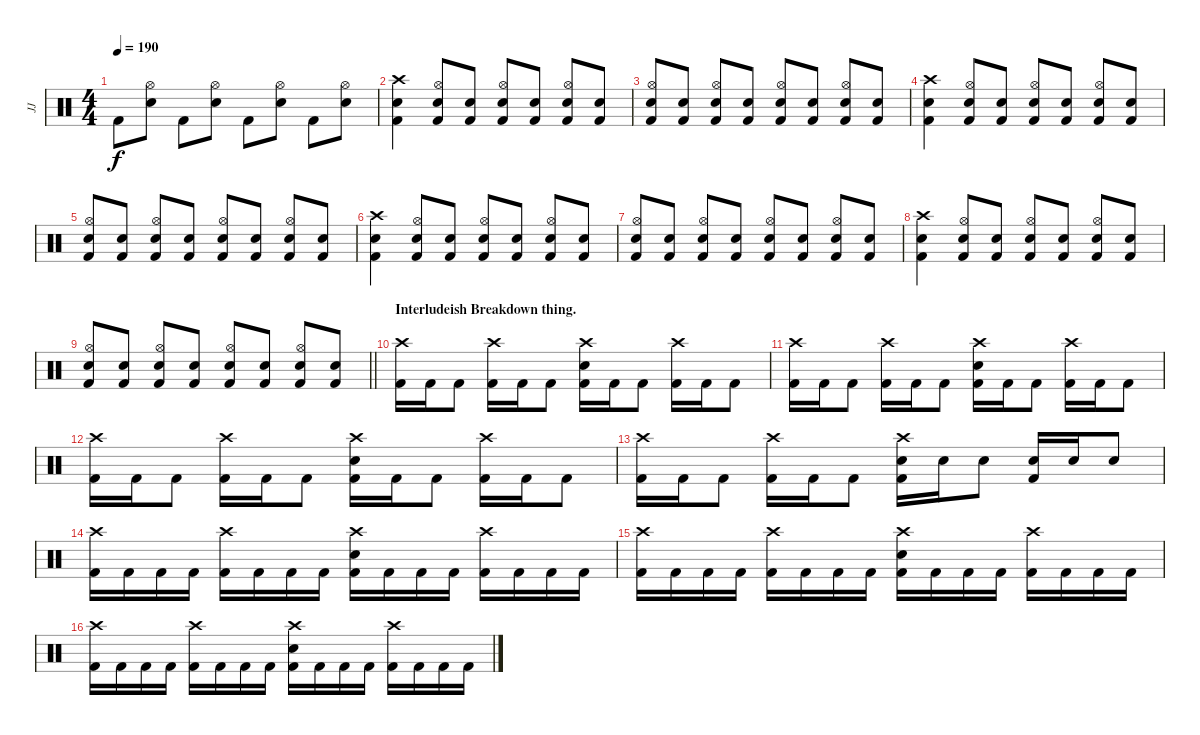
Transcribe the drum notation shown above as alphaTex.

\track ("JJ" "JJ") {instrument percussion}
\staff {score}
\articulation defaults
\ts (4 4)
\tempo 190
\clef neutral
\ks c "Kick (hit) 2".8{dy f}
("Hi-Hat (open)" "Electric Snare (hit)").8 "Kick (hit) 2".8 ("Hi-Hat (open)" "Electric Snare (hit)").8 "Kick (hit) 2".8 ("Hi-Hat (open)" "Electric Snare (hit)").8 "Kick (hit) 2".8 ("Hi-Hat (open)" "Electric Snare (hit)").8 |
("Crash high (hit)" "Electric Snare (hit)" "Kick (hit) 2").4 ("Hi-Hat (open)" "Electric Snare (hit)" "Kick (hit) 2").8 ("Electric Snare (hit)" "Kick (hit) 2").8 ("Hi-Hat (open)" "Electric Snare (hit)" "Kick (hit) 2").8 ("Electric Snare (hit)" "Kick (hit) 2").8 ("Hi-Hat (open)" "Electric Snare (hit)" "Kick (hit) 2").8 ("Electric Snare (hit)" "Kick (hit) 2").8 |
("Hi-Hat (open)" "Electric Snare (hit)" "Kick (hit) 2").8 ("Electric Snare (hit)" "Kick (hit) 2").8 ("Hi-Hat (open)" "Electric Snare (hit)" "Kick (hit) 2").8 ("Electric Snare (hit)" "Kick (hit) 2").8 ("Hi-Hat (open)" "Electric Snare (hit)" "Kick (hit) 2").8 ("Electric Snare (hit)" "Kick (hit) 2").8 ("Hi-Hat (open)" "Electric Snare (hit)" "Kick (hit) 2").8 ("Electric Snare (hit)" "Kick (hit) 2").8 |
("Crash high (hit)" "Electric Snare (hit)" "Kick (hit) 2").4 ("Hi-Hat (open)" "Electric Snare (hit)" "Kick (hit) 2").8 ("Electric Snare (hit)" "Kick (hit) 2").8 ("Hi-Hat (open)" "Electric Snare (hit)" "Kick (hit) 2").8 ("Electric Snare (hit)" "Kick (hit) 2").8 ("Hi-Hat (open)" "Electric Snare (hit)" "Kick (hit) 2").8 ("Electric Snare (hit)" "Kick (hit) 2").8 |
("Hi-Hat (open)" "Electric Snare (hit)" "Kick (hit) 2").8 ("Electric Snare (hit)" "Kick (hit) 2").8 ("Hi-Hat (open)" "Electric Snare (hit)" "Kick (hit) 2").8 ("Electric Snare (hit)" "Kick (hit) 2").8 ("Hi-Hat (open)" "Electric Snare (hit)" "Kick (hit) 2").8 ("Electric Snare (hit)" "Kick (hit) 2").8 ("Hi-Hat (open)" "Electric Snare (hit)" "Kick (hit) 2").8 ("Electric Snare (hit)" "Kick (hit) 2").8 |
("Crash high (hit)" "Electric Snare (hit)" "Kick (hit) 2").4 ("Hi-Hat (open)" "Electric Snare (hit)" "Kick (hit) 2").8 ("Electric Snare (hit)" "Kick (hit) 2").8 ("Hi-Hat (open)" "Electric Snare (hit)" "Kick (hit) 2").8 ("Electric Snare (hit)" "Kick (hit) 2").8 ("Hi-Hat (open)" "Electric Snare (hit)" "Kick (hit) 2").8 ("Electric Snare (hit)" "Kick (hit) 2").8 |
("Hi-Hat (open)" "Electric Snare (hit)" "Kick (hit) 2").8 ("Electric Snare (hit)" "Kick (hit) 2").8 ("Hi-Hat (open)" "Electric Snare (hit)" "Kick (hit) 2").8 ("Electric Snare (hit)" "Kick (hit) 2").8 ("Hi-Hat (open)" "Electric Snare (hit)" "Kick (hit) 2").8 ("Electric Snare (hit)" "Kick (hit) 2").8 ("Hi-Hat (open)" "Electric Snare (hit)" "Kick (hit) 2").8 ("Electric Snare (hit)" "Kick (hit) 2").8 |
("Crash high (hit)" "Electric Snare (hit)" "Kick (hit) 2").4 ("Hi-Hat (open)" "Electric Snare (hit)" "Kick (hit) 2").8 ("Electric Snare (hit)" "Kick (hit) 2").8 ("Hi-Hat (open)" "Electric Snare (hit)" "Kick (hit) 2").8 ("Electric Snare (hit)" "Kick (hit) 2").8 ("Hi-Hat (open)" "Electric Snare (hit)" "Kick (hit) 2").8 ("Electric Snare (hit)" "Kick (hit) 2").8 |
\barLineRight lightlight
("Hi-Hat (open)" "Electric Snare (hit)" "Kick (hit) 2").8 ("Electric Snare (hit)" "Kick (hit) 2").8 ("Hi-Hat (open)" "Electric Snare (hit)" "Kick (hit) 2").8 ("Electric Snare (hit)" "Kick (hit) 2").8 ("Hi-Hat (open)" "Electric Snare (hit)" "Kick (hit) 2").8 ("Electric Snare (hit)" "Kick (hit) 2").8 ("Hi-Hat (open)" "Electric Snare (hit)" "Kick (hit) 2").8 ("Electric Snare (hit)" "Kick (hit) 2").8 |
\section ("" "Interludeish Breakdown thing.")
("Crash high (hit)" "Kick (hit) 2").16 "Kick (hit) 2".16 "Kick (hit) 2".8 ("Crash high (hit)" "Kick (hit) 2").16 "Kick (hit) 2".16 "Kick (hit) 2".8 ("Crash high (hit)" "Electric Snare (hit)" "Kick (hit) 2").16 "Kick (hit) 2".16 "Kick (hit) 2".8 ("Crash high (hit)" "Kick (hit) 2").16 "Kick (hit) 2".16 "Kick (hit) 2".8 |
("Crash high (hit)" "Kick (hit) 2").16 "Kick (hit) 2".16 "Kick (hit) 2".8 ("Crash high (hit)" "Kick (hit) 2").16 "Kick (hit) 2".16 "Kick (hit) 2".8 ("Crash high (hit)" "Electric Snare (hit)" "Kick (hit) 2").16 "Kick (hit) 2".16 "Kick (hit) 2".8 ("Crash high (hit)" "Kick (hit) 2").16 "Kick (hit) 2".16 "Kick (hit) 2".8 |
("Crash high (hit)" "Kick (hit) 2").16 "Kick (hit) 2".16 "Kick (hit) 2".8 ("Crash high (hit)" "Kick (hit) 2").16 "Kick (hit) 2".16 "Kick (hit) 2".8 ("Crash high (hit)" "Electric Snare (hit)" "Kick (hit) 2").16 "Kick (hit) 2".16 "Kick (hit) 2".8 ("Crash high (hit)" "Kick (hit) 2").16 "Kick (hit) 2".16 "Kick (hit) 2".8 |
("Crash high (hit)" "Kick (hit) 2").16 "Kick (hit) 2".16 "Kick (hit) 2".8 ("Crash high (hit)" "Kick (hit) 2").16 "Kick (hit) 2".16 "Kick (hit) 2".8 ("Crash high (hit)" "Electric Snare (hit)" "Kick (hit) 2").16 "Electric Snare (hit)".16 "Electric Snare (hit)".8 ("Electric Snare (hit)" "Kick (hit) 2").16 "Electric Snare (hit)".16 "Electric Snare (hit)".8 |
("Crash high (hit)" "Kick (hit) 2").16 "Kick (hit) 2".16 "Kick (hit) 2".16 "Kick (hit) 2".16 ("Crash high (hit)" "Kick (hit) 2").16 "Kick (hit) 2".16 "Kick (hit) 2".16 "Kick (hit) 2".16 ("Crash high (hit)" "Electric Snare (hit)" "Kick (hit) 2").16 "Kick (hit) 2".16 "Kick (hit) 2".16 "Kick (hit) 2".16 ("Crash high (hit)" "Kick (hit) 2").16 "Kick (hit) 2".16 "Kick (hit) 2".16 "Kick (hit) 2".16 |
("Crash high (hit)" "Kick (hit) 2").16 "Kick (hit) 2".16 "Kick (hit) 2".16 "Kick (hit) 2".16 ("Crash high (hit)" "Kick (hit) 2").16 "Kick (hit) 2".16 "Kick (hit) 2".16 "Kick (hit) 2".16 ("Crash high (hit)" "Electric Snare (hit)" "Kick (hit) 2").16 "Kick (hit) 2".16 "Kick (hit) 2".16 "Kick (hit) 2".16 ("Crash high (hit)" "Kick (hit) 2").16 "Kick (hit) 2".16 "Kick (hit) 2".16 "Kick (hit) 2".16 |
("Crash high (hit)" "Kick (hit) 2").16 "Kick (hit) 2".16 "Kick (hit) 2".16 "Kick (hit) 2".16 ("Crash high (hit)" "Kick (hit) 2").16 "Kick (hit) 2".16 "Kick (hit) 2".16 "Kick (hit) 2".16 ("Crash high (hit)" "Electric Snare (hit)" "Kick (hit) 2").16 "Kick (hit) 2".16 "Kick (hit) 2".16 "Kick (hit) 2".16 ("Crash high (hit)" "Kick (hit) 2").16 "Kick (hit) 2".16 "Kick (hit) 2".16 "Kick (hit) 2".16
